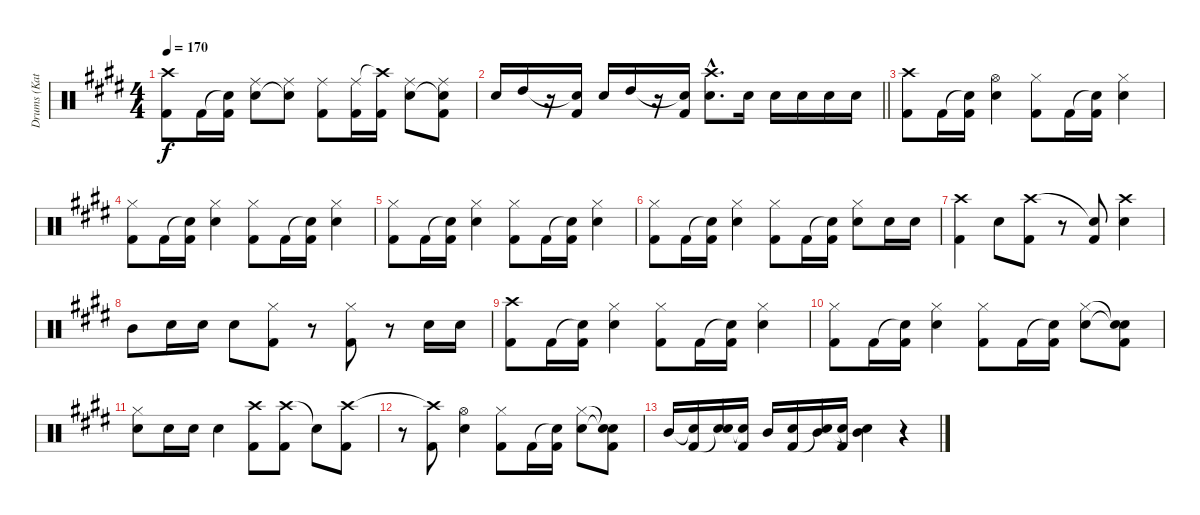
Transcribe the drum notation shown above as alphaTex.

\track ("Drums (Katsuji)" "Drums (Kat") {instrument percussion}
\staff {score}
\articulation defaults
\ts (4 4)
\tempo 170
\clef neutral
\ks e
("Crash high (hit)" "Kick (hit) 2").8{dy f} "Kick (hit) 2".16 ("Snare (hit)"{t} "Kick (hit) 2").16 ("Ride (middle)" "Snare (hit) 2").8 ("Ride (middle)" "Snare (hit)"{t}).8 ("Ride (middle)" "Kick (hit) 2").8 ("Ride (middle)" "Kick (hit) 2").16 ("Crash high (hit)"{t} "Kick (hit) 2").16 ("Ride (middle)" "Snare (hit) 2").8 ("Ride (middle)" "Snare (hit)"{t} "Kick (hit) 2").8 |
\barLineRight lightlight "Snare (hit) 2".16 "High Tom (hit)".16
r.16 ("Snare (hit)"{t} "Kick (hit) 2").16 "Snare (hit) 2".16 "High Tom (hit)".16 r.16 ("Snare (hit)"{t} "Kick (hit) 2").16 ("Crash high (hit)"{hac} "Snare (hit) 2"{hac}).8{d} "Snare (hit) 2".16 "Snare (hit) 2".16 "Snare (hit) 2".16 "Snare (hit) 2".16 "Snare (hit) 2".16 |
("Crash high (hit)" "Kick (hit) 2").8 "Kick (hit) 2".16 ("Snare (hit)"{t} "Kick (hit) 2").16 ("Hi-Hat (open)" "Snare (hit) 2").4 ("Hi-Hat (closed)" "Kick (hit) 2").8 "Kick (hit) 2".16 ("Snare (hit)"{t} "Kick (hit) 2").16 ("Hi-Hat (closed)" "Snare (hit) 2").4 |
("Hi-Hat (closed)" "Kick (hit) 2").8 "Kick (hit) 2".16 ("Snare (hit)"{t} "Kick (hit) 2").16 ("Hi-Hat (closed)" "Snare (hit) 2").4 ("Hi-Hat (closed)" "Kick (hit) 2").8 "Kick (hit) 2".16 ("Snare (hit)"{t} "Kick (hit) 2").16 ("Hi-Hat (closed)" "Snare (hit) 2").4 |
("Hi-Hat (closed)" "Kick (hit) 2").8 "Kick (hit) 2".16 ("Snare (hit)"{t} "Kick (hit) 2").16 ("Hi-Hat (closed)" "Snare (hit) 2").4 ("Hi-Hat (closed)" "Kick (hit) 2").8 "Kick (hit) 2".16 ("Snare (hit)"{t} "Kick (hit) 2").16 ("Hi-Hat (closed)" "Snare (hit) 2").4 |
("Hi-Hat (closed)" "Kick (hit) 2").8 "Kick (hit) 2".16 ("Snare (hit)"{t} "Kick (hit) 2").16 ("Hi-Hat (closed)" "Snare (hit) 2").4 ("Hi-Hat (closed)" "Kick (hit) 2").8 "Kick (hit) 2".16 ("Snare (hit)"{t} "Kick (hit) 2").16 ("Hi-Hat (closed)" "Snare (hit) 2").8 "Snare (hit) 2".16 "Snare (hit) 2".16 |
("Crash high (hit)" "Kick (hit) 2").4 "Snare (hit) 2".8 ("Crash high (hit)" "Kick (hit) 2").8 r.8 ("Snare (hit)"{t} "Kick (hit) 2").8 ("Crash high (hit)" "Snare (hit) 2").4 |
"Mid Tom (hit)".8 "Snare (hit) 2".16 "Snare (hit) 2".16 "Snare (hit) 2".8 ("Hi-Hat (closed)" "Kick (hit) 2").8 r.8 ("Hi-Hat (closed)" "Kick (hit) 2").8 r.8 "Snare (hit) 2".16 "Snare (hit) 2".16 |
("Crash high (hit)" "Kick (hit) 2").8 "Kick (hit) 2".16 ("Snare (hit)"{t} "Kick (hit) 2").16 ("Hi-Hat (closed)" "Snare (hit) 2").4 ("Hi-Hat (closed)" "Kick (hit) 2").8 "Kick (hit) 2".16 ("Snare (hit)"{t} "Kick (hit) 2").16 ("Hi-Hat (closed)" "Snare (hit) 2").4 |
("Hi-Hat (closed)" "Kick (hit) 2").8 "Kick (hit) 2".16 ("Snare (hit)"{t} "Kick (hit) 2").16 ("Hi-Hat (closed)" "Snare (hit) 2").4 ("Hi-Hat (closed)" "Kick (hit) 2").8 "Kick (hit) 2".16 ("Snare (hit)"{t} "Kick (hit) 2").16 ("Hi-Hat (closed)" "Snare (hit) 2").8 ("Snare (hit)"{t} "Snare (hit)"{t} "Kick (hit) 2").8 |
("Hi-Hat (closed)" "Snare (hit) 2").8 "Snare (hit) 2".16 "Snare (hit) 2".16 "Snare (hit) 2".4 ("Crash high (hit)" "Kick (hit) 2").8 ("Crash high (hit)" "Kick (hit) 2").8 "Snare (hit)"{t}.8 ("Crash high (hit)" "Kick (hit) 2").8 |
r.8 ("Crash high (hit)"{t} "Kick (hit) 2").8 ("Hi-Hat (open)" "Snare (hit) 2").4 ("Hi-Hat (closed)" "Kick (hit) 2").8 "Kick (hit) 2".16 ("Snare (hit)"{t} "Kick (hit) 2").16 ("Hi-Hat (closed)" "Snare (hit) 2").8 ("Snare (hit)"{t} "Snare (hit)"{t} "Kick (hit) 2").8 |
"Mid Tom (hit)".16 ("Snare (hit)"{t} "Kick (hit) 2").16 ("Snare (hit) 2" "Snare (hit)"{t}).16 ("Snare (hit)"{t} "Kick (hit) 2").16 "Mid Tom (hit)".16 ("Snare (hit) 2" "Kick (hit) 2").16 ("Mid Tom (hit)" "Snare (hit)"{t}).16 ("Snare (hit)"{t} "Kick (hit) 2").16 ("Snare (hit) 2" "Mid Tom (hit)").4 r.4
